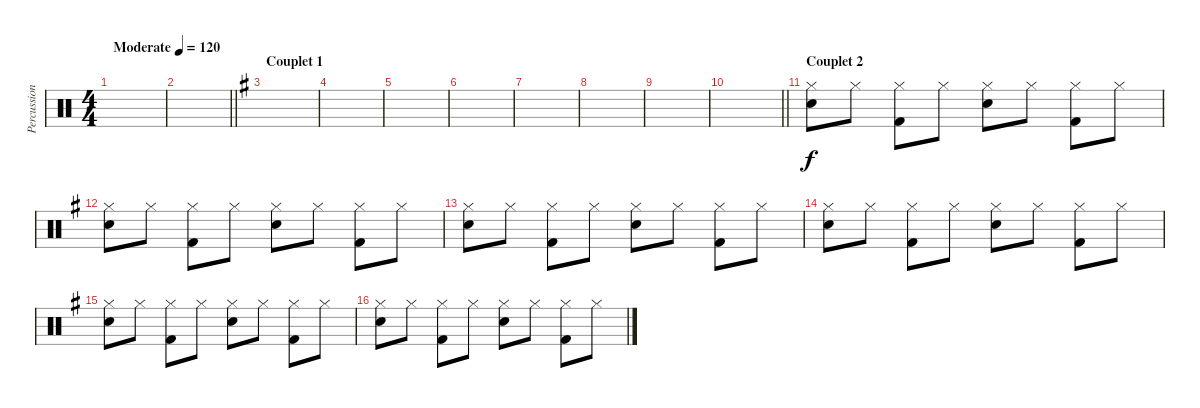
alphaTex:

\track ("Percussions" "Percussion") {instrument percussion}
\staff {score}
\articulation defaults
\ts (4 4)
\tempo (120 "Moderate")
\clef neutral
\ks c
|
\barLineRight lightlight
|
\section ("" "Couplet 1")
\ks g
|
|
|
|
|
|
|
\barLineRight lightlight
|
\section ("" "Couplet 2")
("Hi-Hat (closed)" "Snare (hit) 2").8 "Hi-Hat (closed)".8 ("Hi-Hat (closed)" "Kick (hit) 2").8 "Hi-Hat (closed)".8 ("Hi-Hat (closed)" "Snare (hit) 2").8 "Hi-Hat (closed)".8 ("Hi-Hat (closed)" "Kick (hit) 2").8 "Hi-Hat (closed)".8 |
("Hi-Hat (closed)" "Snare (hit) 2").8 "Hi-Hat (closed)".8 ("Hi-Hat (closed)" "Kick (hit) 2").8 "Hi-Hat (closed)".8 ("Hi-Hat (closed)" "Snare (hit) 2").8 "Hi-Hat (closed)".8 ("Hi-Hat (closed)" "Kick (hit) 2").8 "Hi-Hat (closed)".8 |
("Hi-Hat (closed)" "Snare (hit) 2").8 "Hi-Hat (closed)".8 ("Hi-Hat (closed)" "Kick (hit) 2").8 "Hi-Hat (closed)".8 ("Hi-Hat (closed)" "Snare (hit) 2").8 "Hi-Hat (closed)".8 ("Hi-Hat (closed)" "Kick (hit) 2").8 "Hi-Hat (closed)".8 |
("Hi-Hat (closed)" "Snare (hit) 2").8 "Hi-Hat (closed)".8 ("Hi-Hat (closed)" "Kick (hit) 2").8 "Hi-Hat (closed)".8 ("Hi-Hat (closed)" "Snare (hit) 2").8 "Hi-Hat (closed)".8 ("Hi-Hat (closed)" "Kick (hit) 2").8 "Hi-Hat (closed)".8 |
("Hi-Hat (closed)" "Snare (hit) 2").8 "Hi-Hat (closed)".8 ("Hi-Hat (closed)" "Kick (hit) 2").8 "Hi-Hat (closed)".8 ("Hi-Hat (closed)" "Snare (hit) 2").8 "Hi-Hat (closed)".8 ("Hi-Hat (closed)" "Kick (hit) 2").8 "Hi-Hat (closed)".8 |
("Hi-Hat (closed)" "Snare (hit) 2").8 "Hi-Hat (closed)".8 ("Hi-Hat (closed)" "Kick (hit) 2").8 "Hi-Hat (closed)".8 ("Hi-Hat (closed)" "Snare (hit) 2").8 "Hi-Hat (closed)".8 ("Hi-Hat (closed)" "Kick (hit) 2").8 "Hi-Hat (closed)".8
